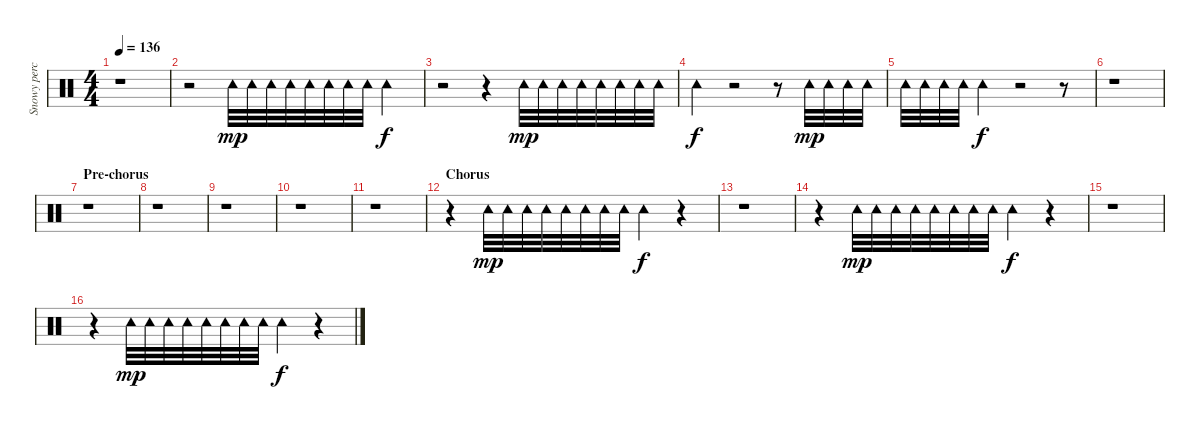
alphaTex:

\track ("Snowy percussion" "Snowy perc") {instrument percussion}
\staff {score}
\articulation defaults
\ts (4 4)
\tempo 136
\clef neutral
\ks c
r.1{dy f} |
r.2 "Tambourine (hit)".32{dy mp} "Tambourine (hit)".32 "Tambourine (hit)".32 "Tambourine (hit)".32 "Tambourine (hit)".32 "Tambourine (hit)".32 "Tambourine (hit)".32 "Tambourine (hit)".32 "Tambourine (hit)".4{dy f} |
r.2 r.4 "Tambourine (hit)".32{dy mp} "Tambourine (hit)".32 "Tambourine (hit)".32 "Tambourine (hit)".32 "Tambourine (hit)".32 "Tambourine (hit)".32 "Tambourine (hit)".32 "Tambourine (hit)".32 |
"Tambourine (hit)".4{dy f} r.2 r.8 "Tambourine (hit)".32{dy mp} "Tambourine (hit)".32 "Tambourine (hit)".32 "Tambourine (hit)".32 |
"Tambourine (hit)".32 "Tambourine (hit)".32 "Tambourine (hit)".32 "Tambourine (hit)".32 "Tambourine (hit)".4{dy f} r.2 r.8 |
r.1 |
\section ("" "Pre-chorus")
r.1 |
r.1 |
r.1 |
r.1 |
r.1 |
\section ("" "Chorus")
r.4 "Tambourine (hit)".32{dy mp} "Tambourine (hit)".32 "Tambourine (hit)".32 "Tambourine (hit)".32 "Tambourine (hit)".32 "Tambourine (hit)".32 "Tambourine (hit)".32 "Tambourine (hit)".32 "Tambourine (hit)".4{dy f} r.4 |
r.1 |
r.4 "Tambourine (hit)".32{dy mp} "Tambourine (hit)".32 "Tambourine (hit)".32 "Tambourine (hit)".32 "Tambourine (hit)".32 "Tambourine (hit)".32 "Tambourine (hit)".32 "Tambourine (hit)".32 "Tambourine (hit)".4{dy f} r.4 |
r.1 |
r.4 "Tambourine (hit)".32{dy mp} "Tambourine (hit)".32 "Tambourine (hit)".32 "Tambourine (hit)".32 "Tambourine (hit)".32 "Tambourine (hit)".32 "Tambourine (hit)".32 "Tambourine (hit)".32 "Tambourine (hit)".4{dy f} r.4
